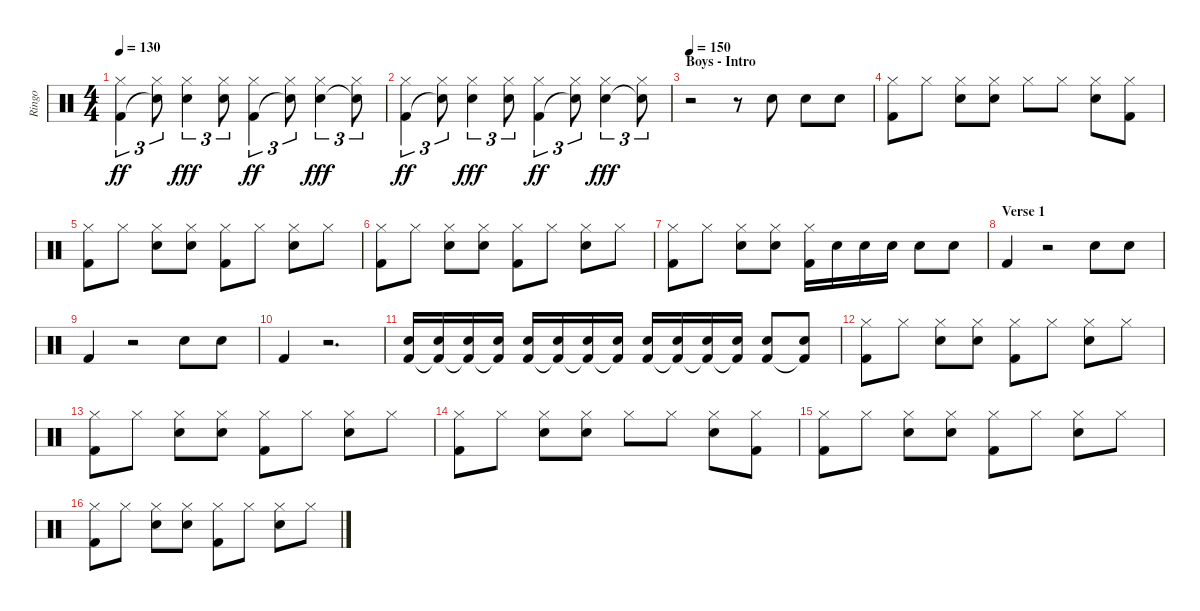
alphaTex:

\track ("Ringo" "Ringo") {instrument percussion}
\staff {score}
\articulation defaults
\ts (4 4)
\tempo 130
\clef neutral
\ks c
("Hi-Hat (closed)" "Kick (hit) 2").4{tu (3 2) dy ff} ("Hi-Hat (closed)" "Snare (hit)"{t}).8{tu (3 2)} ("Hi-Hat (closed)" "Electric Snare (hit)").4{tu (3 2) dy fff} ("Hi-Hat (closed)" "Electric Snare (hit)").8{tu (3 2)} ("Hi-Hat (closed)" "Kick (hit) 2").4{tu (3 2) dy ff} ("Hi-Hat (closed)" "Snare (hit)"{t}).8{tu (3 2)} ("Hi-Hat (closed)" "Electric Snare (hit)").4{tu (3 2) dy fff} ("Hi-Hat (closed)" "Snare (hit)"{t}).8{tu (3 2)} |
("Hi-Hat (closed)" "Kick (hit) 2").4{tu (3 2) dy ff} ("Hi-Hat (closed)" "Snare (hit)"{t}).8{tu (3 2)} ("Hi-Hat (closed)" "Electric Snare (hit)").4{tu (3 2) dy fff} ("Hi-Hat (closed)" "Electric Snare (hit)").8{tu (3 2)} ("Hi-Hat (closed)" "Kick (hit) 2").4{tu (3 2) dy ff} ("Hi-Hat (closed)" "Snare (hit)"{t}).8{tu (3 2)} ("Hi-Hat (closed)" "Electric Snare (hit)").4{tu (3 2) dy fff} ("Hi-Hat (closed)" "Snare (hit)"{t}).8{tu (3 2)} |
\section ("" "Boys - Intro")
\tempo 150
r.2{volume 15} r.8 "Snare (hit) 2".8 "Snare (hit) 2".8 "Snare (hit) 2".8 |
("Hi-Hat (closed)" "Kick (hit) 2").8 "Hi-Hat (closed)".8 ("Hi-Hat (closed)" "Snare (hit) 2").8 ("Hi-Hat (closed)" "Snare (hit) 2").8 "Hi-Hat (closed)".8 "Hi-Hat (closed)".8 ("Hi-Hat (closed)" "Snare (hit) 2").8 ("Hi-Hat (closed)" "Kick (hit) 2").8 |
("Hi-Hat (closed)" "Kick (hit) 2").8 "Hi-Hat (closed)".8 ("Hi-Hat (closed)" "Snare (hit) 2").8 ("Hi-Hat (closed)" "Snare (hit) 2").8 ("Hi-Hat (closed)" "Kick (hit) 2").8 "Hi-Hat (closed)".8 ("Hi-Hat (closed)" "Snare (hit) 2").8 "Hi-Hat (closed)".8 |
("Hi-Hat (closed)" "Kick (hit) 2").8 "Hi-Hat (closed)".8 ("Hi-Hat (closed)" "Snare (hit) 2").8 ("Hi-Hat (closed)" "Snare (hit) 2").8 ("Hi-Hat (closed)" "Kick (hit) 2").8 "Hi-Hat (closed)".8 ("Hi-Hat (closed)" "Snare (hit) 2").8 "Hi-Hat (closed)".8 |
("Hi-Hat (closed)" "Kick (hit) 2").8 "Hi-Hat (closed)".8 ("Hi-Hat (closed)" "Snare (hit) 2").8 ("Hi-Hat (closed)" "Snare (hit) 2").8 ("Hi-Hat (closed)" "Kick (hit) 2").16 "Snare (hit) 2".16 "Snare (hit) 2".16 "Snare (hit) 2".16 "Snare (hit) 2".8 "Snare (hit) 2".8 |
\section ("" "Verse 1")
"Kick (hit) 2".4 r.2 "Snare (hit) 2".8 "Snare (hit) 2".8 |
"Kick (hit) 2".4 r.2 "Snare (hit) 2".8 "Snare (hit) 2".8 |
"Kick (hit) 2".4 r.2{d} |
("Snare (hit) 2" "Kick (hit) 2").16 ("Snare (hit) 2" "Kick (hit) 2"{t}).16 ("Snare (hit) 2" "Kick (hit) 2"{t}).16 ("Snare (hit) 2" "Kick (hit) 2"{t}).16 ("Snare (hit) 2" "Kick (hit) 2").16 ("Snare (hit) 2" "Kick (hit) 2"{t}).16 ("Snare (hit) 2" "Kick (hit) 2"{t}).16 ("Snare (hit) 2" "Kick (hit) 2"{t}).16 ("Snare (hit) 2" "Kick (hit) 2").16 ("Snare (hit) 2" "Kick (hit) 2"{t}).16 ("Snare (hit) 2" "Kick (hit) 2"{t}).16 ("Snare (hit) 2" "Kick (hit) 2"{t}).16 ("Snare (hit) 2" "Kick (hit) 2").8 ("Snare (hit) 2" "Kick (hit) 2"{t}).8 |
("Hi-Hat (closed)" "Kick (hit) 2").8 "Hi-Hat (closed)".8 ("Hi-Hat (closed)" "Snare (hit) 2").8 ("Hi-Hat (closed)" "Snare (hit) 2").8 ("Hi-Hat (closed)" "Kick (hit) 2").8 "Hi-Hat (closed)".8 ("Hi-Hat (closed)" "Snare (hit) 2").8 "Hi-Hat (closed)".8 |
("Hi-Hat (closed)" "Kick (hit) 2").8 "Hi-Hat (closed)".8 ("Hi-Hat (closed)" "Snare (hit) 2").8 ("Hi-Hat (closed)" "Snare (hit) 2").8 ("Hi-Hat (closed)" "Kick (hit) 2").8 "Hi-Hat (closed)".8 ("Hi-Hat (closed)" "Snare (hit) 2").8 "Hi-Hat (closed)".8 |
("Hi-Hat (closed)" "Kick (hit) 2").8 "Hi-Hat (closed)".8 ("Hi-Hat (closed)" "Snare (hit) 2").8 ("Hi-Hat (closed)" "Snare (hit) 2").8 "Hi-Hat (closed)".8 "Hi-Hat (closed)".8 ("Hi-Hat (closed)" "Snare (hit) 2").8 ("Hi-Hat (closed)" "Kick (hit) 2").8 |
("Hi-Hat (closed)" "Kick (hit) 2").8 "Hi-Hat (closed)".8 ("Hi-Hat (closed)" "Snare (hit) 2").8 ("Hi-Hat (closed)" "Snare (hit) 2").8 ("Hi-Hat (closed)" "Kick (hit) 2").8 "Hi-Hat (closed)".8 ("Hi-Hat (closed)" "Snare (hit) 2").8 "Hi-Hat (closed)".8 |
("Hi-Hat (closed)" "Kick (hit) 2").8 "Hi-Hat (closed)".8 ("Hi-Hat (closed)" "Snare (hit) 2").8 ("Hi-Hat (closed)" "Snare (hit) 2").8 ("Hi-Hat (closed)" "Kick (hit) 2").8 "Hi-Hat (closed)".8 ("Hi-Hat (closed)" "Snare (hit) 2").8 "Hi-Hat (closed)".8
